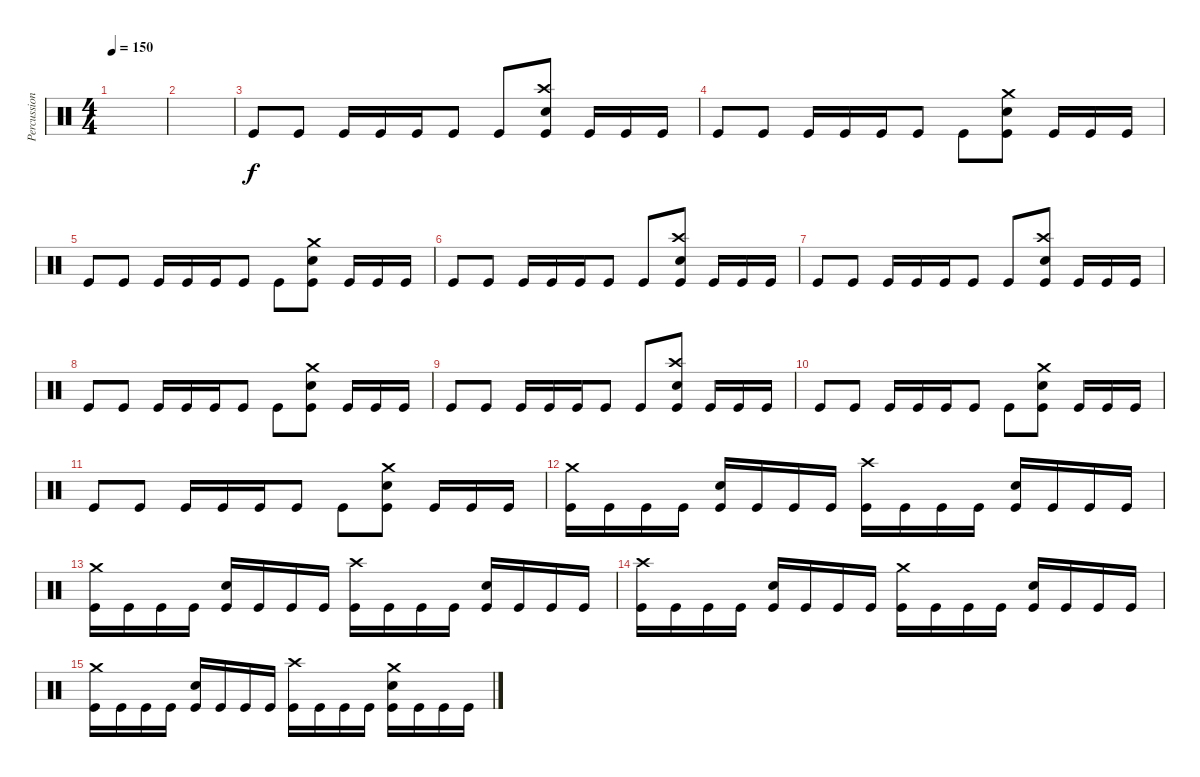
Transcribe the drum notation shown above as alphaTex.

\track ("Percussion" "Percussion") {instrument percussion}
\staff {score}
\articulation defaults
\ts (4 4)
\tempo 150
\clef neutral
\ks c
|
|
"Kick (hit)".8 "Kick (hit)".8 "Kick (hit)".16 "Kick (hit)".16 "Kick (hit)".16 "Kick (hit)".8 "Kick (hit)".8 ("Crash high (hit)" "Electric Snare (hit)" "Kick (hit)").8 "Kick (hit)".16 "Kick (hit)".16 "Kick (hit)".16 |
"Kick (hit)".8 "Kick (hit)".8 "Kick (hit)".16 "Kick (hit)".16 "Kick (hit)".16 "Kick (hit)".8 "Kick (hit)".8 ("Crash medium (hit)" "Electric Snare (hit)" "Kick (hit)").8 "Kick (hit)".16 "Kick (hit)".16 "Kick (hit)".16 |
"Kick (hit)".8 "Kick (hit)".8 "Kick (hit)".16 "Kick (hit)".16 "Kick (hit)".16 "Kick (hit)".8 "Kick (hit)".8 ("Crash medium (hit)" "Electric Snare (hit)" "Kick (hit)").8 "Kick (hit)".16 "Kick (hit)".16 "Kick (hit)".16 |
"Kick (hit)".8 "Kick (hit)".8 "Kick (hit)".16 "Kick (hit)".16 "Kick (hit)".16 "Kick (hit)".8 "Kick (hit)".8 ("Crash high (hit)" "Electric Snare (hit)" "Kick (hit)").8 "Kick (hit)".16 "Kick (hit)".16 "Kick (hit)".16 |
"Kick (hit)".8 "Kick (hit)".8 "Kick (hit)".16 "Kick (hit)".16 "Kick (hit)".16 "Kick (hit)".8 "Kick (hit)".8 ("Crash high (hit)" "Electric Snare (hit)" "Kick (hit)").8 "Kick (hit)".16 "Kick (hit)".16 "Kick (hit)".16 |
"Kick (hit)".8 "Kick (hit)".8 "Kick (hit)".16 "Kick (hit)".16 "Kick (hit)".16 "Kick (hit)".8 "Kick (hit)".8 ("Crash medium (hit)" "Electric Snare (hit)" "Kick (hit)").8 "Kick (hit)".16 "Kick (hit)".16 "Kick (hit)".16 |
"Kick (hit)".8 "Kick (hit)".8 "Kick (hit)".16 "Kick (hit)".16 "Kick (hit)".16 "Kick (hit)".8 "Kick (hit)".8 ("Crash high (hit)" "Electric Snare (hit)" "Kick (hit)").8 "Kick (hit)".16 "Kick (hit)".16 "Kick (hit)".16 |
"Kick (hit)".8 "Kick (hit)".8 "Kick (hit)".16 "Kick (hit)".16 "Kick (hit)".16 "Kick (hit)".8 "Kick (hit)".8 ("Crash medium (hit)" "Electric Snare (hit)" "Kick (hit)").8 "Kick (hit)".16 "Kick (hit)".16 "Kick (hit)".16 |
"Kick (hit)".8 "Kick (hit)".8 "Kick (hit)".16 "Kick (hit)".16 "Kick (hit)".16 "Kick (hit)".8 "Kick (hit)".8 ("Crash medium (hit)" "Electric Snare (hit)" "Kick (hit)").8 "Kick (hit)".16 "Kick (hit)".16 "Kick (hit)".16 |
("Crash medium (hit)" "Kick (hit)").16 "Kick (hit)".16 "Kick (hit)".16 "Kick (hit)".16 ("Electric Snare (hit)" "Kick (hit)").16 "Kick (hit)".16 "Kick (hit)".16 "Kick (hit)".16 ("Crash high (hit)" "Kick (hit)").16 "Kick (hit)".16 "Kick (hit)".16 "Kick (hit)".16 ("Electric Snare (hit)" "Kick (hit)").16 "Kick (hit)".16 "Kick (hit)".16 "Kick (hit)".16 |
("Crash medium (hit)" "Kick (hit)").16 "Kick (hit)".16 "Kick (hit)".16 "Kick (hit)".16 ("Electric Snare (hit)" "Kick (hit)").16 "Kick (hit)".16 "Kick (hit)".16 "Kick (hit)".16 ("Crash high (hit)" "Kick (hit)").16 "Kick (hit)".16 "Kick (hit)".16 "Kick (hit)".16 ("Electric Snare (hit)" "Kick (hit)").16 "Kick (hit)".16 "Kick (hit)".16 "Kick (hit)".16 |
("Crash high (hit)" "Kick (hit)").16 "Kick (hit)".16 "Kick (hit)".16 "Kick (hit)".16 ("Electric Snare (hit)" "Kick (hit)").16 "Kick (hit)".16 "Kick (hit)".16 "Kick (hit)".16 ("Crash medium (hit)" "Kick (hit)").16 "Kick (hit)".16 "Kick (hit)".16 "Kick (hit)".16 ("Electric Snare (hit)" "Kick (hit)").16 "Kick (hit)".16 "Kick (hit)".16 "Kick (hit)".16 |
("Crash medium (hit)" "Kick (hit)").16 "Kick (hit)".16 "Kick (hit)".16 "Kick (hit)".16 ("Electric Snare (hit)" "Kick (hit)").16 "Kick (hit)".16 "Kick (hit)".16 "Kick (hit)".16 ("Crash high (hit)" "Kick (hit)").16 "Kick (hit)".16 "Kick (hit)".16 "Kick (hit)".16 ("Electric Snare (hit)" "Crash medium (hit)" "Kick (hit)").16 "Kick (hit)".16 "Kick (hit)".16 "Kick (hit)".16
